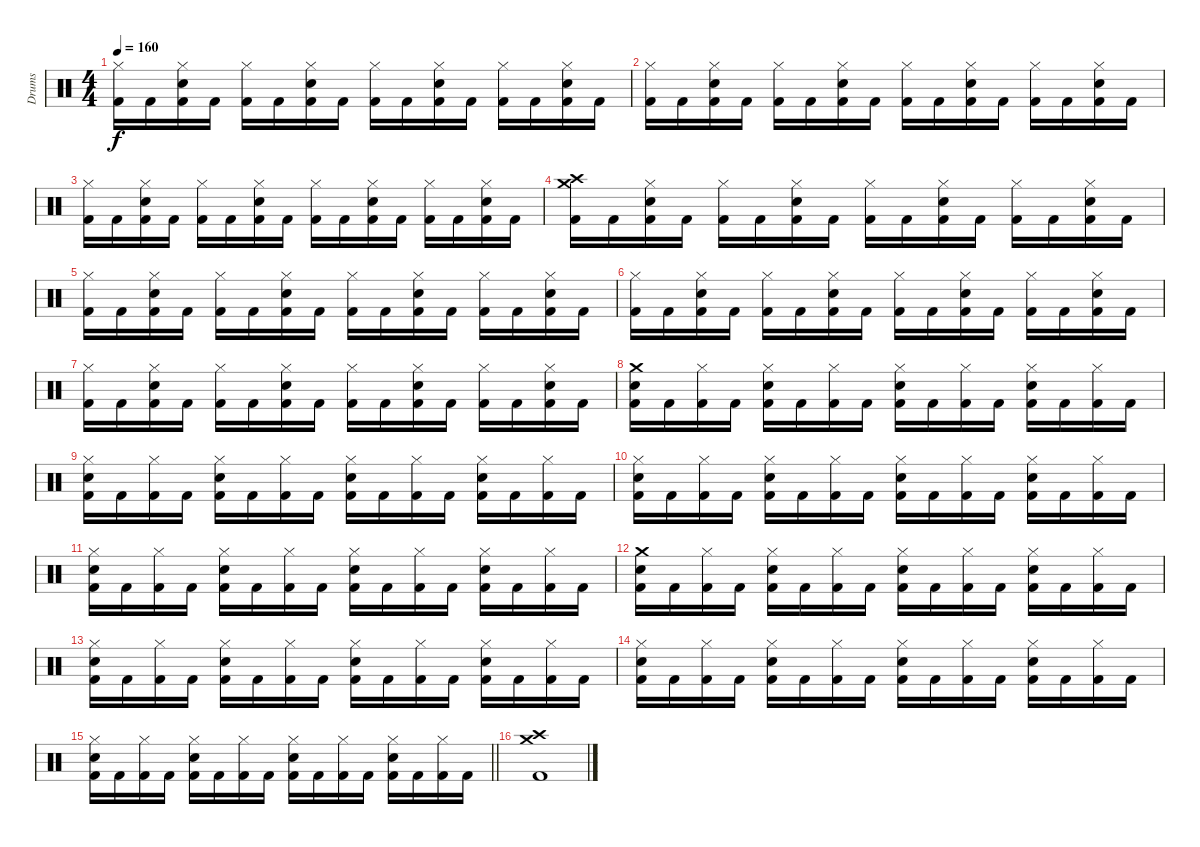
\track ("Drums" "Drums") {instrument percussion}
\staff {score}
\articulation defaults
\ts (4 4)
\tempo 160
\clef neutral
\ks c
("Hi-Hat (closed)" "Kick (hit) 2").16{dy f} "Kick (hit) 2".16 ("Hi-Hat (closed)" "Electric Snare (hit)" "Kick (hit) 2").16 "Kick (hit) 2".16 ("Hi-Hat (closed)" "Kick (hit) 2").16 "Kick (hit) 2".16 ("Hi-Hat (closed)" "Electric Snare (hit)" "Kick (hit) 2").16 "Kick (hit) 2".16 ("Hi-Hat (closed)" "Kick (hit) 2").16 "Kick (hit) 2".16 ("Hi-Hat (closed)" "Electric Snare (hit)" "Kick (hit) 2").16 "Kick (hit) 2".16 ("Hi-Hat (closed)" "Kick (hit) 2").16 "Kick (hit) 2".16 ("Hi-Hat (closed)" "Electric Snare (hit)" "Kick (hit) 2").16 "Kick (hit) 2".16 |
("Hi-Hat (closed)" "Kick (hit) 2").16 "Kick (hit) 2".16 ("Hi-Hat (closed)" "Electric Snare (hit)" "Kick (hit) 2").16 "Kick (hit) 2".16 ("Hi-Hat (closed)" "Kick (hit) 2").16 "Kick (hit) 2".16 ("Hi-Hat (closed)" "Electric Snare (hit)" "Kick (hit) 2").16 "Kick (hit) 2".16 ("Hi-Hat (closed)" "Kick (hit) 2").16 "Kick (hit) 2".16 ("Hi-Hat (closed)" "Electric Snare (hit)" "Kick (hit) 2").16 "Kick (hit) 2".16 ("Hi-Hat (closed)" "Kick (hit) 2").16 "Kick (hit) 2".16 ("Hi-Hat (closed)" "Electric Snare (hit)" "Kick (hit) 2").16 "Kick (hit) 2".16 |
("Hi-Hat (closed)" "Kick (hit) 2").16 "Kick (hit) 2".16 ("Hi-Hat (closed)" "Electric Snare (hit)" "Kick (hit) 2").16 "Kick (hit) 2".16 ("Hi-Hat (closed)" "Kick (hit) 2").16 "Kick (hit) 2".16 ("Hi-Hat (closed)" "Electric Snare (hit)" "Kick (hit) 2").16 "Kick (hit) 2".16 ("Hi-Hat (closed)" "Kick (hit) 2").16 "Kick (hit) 2".16 ("Hi-Hat (closed)" "Electric Snare (hit)" "Kick (hit) 2").16 "Kick (hit) 2".16 ("Hi-Hat (closed)" "Kick (hit) 2").16 "Kick (hit) 2".16 ("Hi-Hat (closed)" "Electric Snare (hit)" "Kick (hit) 2").16 "Kick (hit) 2".16 |
("Crash medium (hit)" "Crash high (hit)" "Kick (hit) 2").16 "Kick (hit) 2".16 ("Hi-Hat (closed)" "Electric Snare (hit)" "Kick (hit) 2").16 "Kick (hit) 2".16 ("Hi-Hat (closed)" "Kick (hit) 2").16 "Kick (hit) 2".16 ("Hi-Hat (closed)" "Electric Snare (hit)" "Kick (hit) 2").16 "Kick (hit) 2".16 ("Hi-Hat (closed)" "Kick (hit) 2").16 "Kick (hit) 2".16 ("Hi-Hat (closed)" "Electric Snare (hit)" "Kick (hit) 2").16 "Kick (hit) 2".16 ("Hi-Hat (closed)" "Kick (hit) 2").16 "Kick (hit) 2".16 ("Hi-Hat (closed)" "Electric Snare (hit)" "Kick (hit) 2").16 "Kick (hit) 2".16 |
("Hi-Hat (closed)" "Kick (hit) 2").16 "Kick (hit) 2".16 ("Hi-Hat (closed)" "Electric Snare (hit)" "Kick (hit) 2").16 "Kick (hit) 2".16 ("Hi-Hat (closed)" "Kick (hit) 2").16 "Kick (hit) 2".16 ("Hi-Hat (closed)" "Electric Snare (hit)" "Kick (hit) 2").16 "Kick (hit) 2".16 ("Hi-Hat (closed)" "Kick (hit) 2").16 "Kick (hit) 2".16 ("Hi-Hat (closed)" "Electric Snare (hit)" "Kick (hit) 2").16 "Kick (hit) 2".16 ("Hi-Hat (closed)" "Kick (hit) 2").16 "Kick (hit) 2".16 ("Hi-Hat (closed)" "Electric Snare (hit)" "Kick (hit) 2").16 "Kick (hit) 2".16 |
("Hi-Hat (closed)" "Kick (hit) 2").16 "Kick (hit) 2".16 ("Hi-Hat (closed)" "Electric Snare (hit)" "Kick (hit) 2").16 "Kick (hit) 2".16 ("Hi-Hat (closed)" "Kick (hit) 2").16 "Kick (hit) 2".16 ("Hi-Hat (closed)" "Electric Snare (hit)" "Kick (hit) 2").16 "Kick (hit) 2".16 ("Hi-Hat (closed)" "Kick (hit) 2").16 "Kick (hit) 2".16 ("Hi-Hat (closed)" "Electric Snare (hit)" "Kick (hit) 2").16 "Kick (hit) 2".16 ("Hi-Hat (closed)" "Kick (hit) 2").16 "Kick (hit) 2".16 ("Hi-Hat (closed)" "Electric Snare (hit)" "Kick (hit) 2").16 "Kick (hit) 2".16 |
("Hi-Hat (closed)" "Kick (hit) 2").16 "Kick (hit) 2".16 ("Hi-Hat (closed)" "Electric Snare (hit)" "Kick (hit) 2").16 "Kick (hit) 2".16 ("Hi-Hat (closed)" "Kick (hit) 2").16 "Kick (hit) 2".16 ("Hi-Hat (closed)" "Electric Snare (hit)" "Kick (hit) 2").16 "Kick (hit) 2".16 ("Hi-Hat (closed)" "Kick (hit) 2").16 "Kick (hit) 2".16 ("Hi-Hat (closed)" "Electric Snare (hit)" "Kick (hit) 2").16 "Kick (hit) 2".16 ("Hi-Hat (closed)" "Kick (hit) 2").16 "Kick (hit) 2".16 ("Hi-Hat (closed)" "Electric Snare (hit)" "Kick (hit) 2").16 "Kick (hit) 2".16 |
("Crash medium (hit)" "Electric Snare (hit)" "Kick (hit) 2").16 "Kick (hit) 2".16 ("Hi-Hat (closed)" "Kick (hit) 2").16 "Kick (hit) 2".16 ("Hi-Hat (closed)" "Electric Snare (hit)" "Kick (hit) 2").16 "Kick (hit) 2".16 ("Hi-Hat (closed)" "Kick (hit) 2").16 "Kick (hit) 2".16 ("Hi-Hat (closed)" "Electric Snare (hit)" "Kick (hit) 2").16 "Kick (hit) 2".16 ("Hi-Hat (closed)" "Kick (hit) 2").16 "Kick (hit) 2".16 ("Hi-Hat (closed)" "Electric Snare (hit)" "Kick (hit) 2").16 "Kick (hit) 2".16 ("Hi-Hat (closed)" "Kick (hit) 2").16 "Kick (hit) 2".16 |
("Hi-Hat (closed)" "Electric Snare (hit)" "Kick (hit) 2").16 "Kick (hit) 2".16 ("Hi-Hat (closed)" "Kick (hit) 2").16 "Kick (hit) 2".16 ("Hi-Hat (closed)" "Electric Snare (hit)" "Kick (hit) 2").16 "Kick (hit) 2".16 ("Hi-Hat (closed)" "Kick (hit) 2").16 "Kick (hit) 2".16 ("Hi-Hat (closed)" "Electric Snare (hit)" "Kick (hit) 2").16 "Kick (hit) 2".16 ("Hi-Hat (closed)" "Kick (hit) 2").16 "Kick (hit) 2".16 ("Hi-Hat (closed)" "Electric Snare (hit)" "Kick (hit) 2").16 "Kick (hit) 2".16 ("Hi-Hat (closed)" "Kick (hit) 2").16 "Kick (hit) 2".16 |
("Hi-Hat (closed)" "Electric Snare (hit)" "Kick (hit) 2").16 "Kick (hit) 2".16 ("Hi-Hat (closed)" "Kick (hit) 2").16 "Kick (hit) 2".16 ("Hi-Hat (closed)" "Electric Snare (hit)" "Kick (hit) 2").16 "Kick (hit) 2".16 ("Hi-Hat (closed)" "Kick (hit) 2").16 "Kick (hit) 2".16 ("Hi-Hat (closed)" "Electric Snare (hit)" "Kick (hit) 2").16 "Kick (hit) 2".16 ("Hi-Hat (closed)" "Kick (hit) 2").16 "Kick (hit) 2".16 ("Hi-Hat (closed)" "Electric Snare (hit)" "Kick (hit) 2").16 "Kick (hit) 2".16 ("Hi-Hat (closed)" "Kick (hit) 2").16 "Kick (hit) 2".16 |
("Hi-Hat (closed)" "Electric Snare (hit)" "Kick (hit) 2").16 "Kick (hit) 2".16 ("Hi-Hat (closed)" "Kick (hit) 2").16 "Kick (hit) 2".16 ("Hi-Hat (closed)" "Electric Snare (hit)" "Kick (hit) 2").16 "Kick (hit) 2".16 ("Hi-Hat (closed)" "Kick (hit) 2").16 "Kick (hit) 2".16 ("Hi-Hat (closed)" "Electric Snare (hit)" "Kick (hit) 2").16 "Kick (hit) 2".16 ("Hi-Hat (closed)" "Kick (hit) 2").16 "Kick (hit) 2".16 ("Hi-Hat (closed)" "Electric Snare (hit)" "Kick (hit) 2").16 "Kick (hit) 2".16 ("Hi-Hat (closed)" "Kick (hit) 2").16 "Kick (hit) 2".16 |
("Crash medium (hit)" "Electric Snare (hit)" "Kick (hit) 2").16 "Kick (hit) 2".16 ("Hi-Hat (closed)" "Kick (hit) 2").16 "Kick (hit) 2".16 ("Hi-Hat (closed)" "Electric Snare (hit)" "Kick (hit) 2").16 "Kick (hit) 2".16 ("Hi-Hat (closed)" "Kick (hit) 2").16 "Kick (hit) 2".16 ("Hi-Hat (closed)" "Electric Snare (hit)" "Kick (hit) 2").16 "Kick (hit) 2".16 ("Hi-Hat (closed)" "Kick (hit) 2").16 "Kick (hit) 2".16 ("Hi-Hat (closed)" "Electric Snare (hit)" "Kick (hit) 2").16 "Kick (hit) 2".16 ("Hi-Hat (closed)" "Kick (hit) 2").16 "Kick (hit) 2".16 |
("Hi-Hat (closed)" "Electric Snare (hit)" "Kick (hit) 2").16 "Kick (hit) 2".16 ("Hi-Hat (closed)" "Kick (hit) 2").16 "Kick (hit) 2".16 ("Hi-Hat (closed)" "Electric Snare (hit)" "Kick (hit) 2").16 "Kick (hit) 2".16 ("Hi-Hat (closed)" "Kick (hit) 2").16 "Kick (hit) 2".16 ("Hi-Hat (closed)" "Electric Snare (hit)" "Kick (hit) 2").16 "Kick (hit) 2".16 ("Hi-Hat (closed)" "Kick (hit) 2").16 "Kick (hit) 2".16 ("Hi-Hat (closed)" "Electric Snare (hit)" "Kick (hit) 2").16 "Kick (hit) 2".16 ("Hi-Hat (closed)" "Kick (hit) 2").16 "Kick (hit) 2".16 |
("Hi-Hat (closed)" "Electric Snare (hit)" "Kick (hit) 2").16 "Kick (hit) 2".16 ("Hi-Hat (closed)" "Kick (hit) 2").16 "Kick (hit) 2".16 ("Hi-Hat (closed)" "Electric Snare (hit)" "Kick (hit) 2").16 "Kick (hit) 2".16 ("Hi-Hat (closed)" "Kick (hit) 2").16 "Kick (hit) 2".16 ("Hi-Hat (closed)" "Electric Snare (hit)" "Kick (hit) 2").16 "Kick (hit) 2".16 ("Hi-Hat (closed)" "Kick (hit) 2").16 "Kick (hit) 2".16 ("Hi-Hat (closed)" "Electric Snare (hit)" "Kick (hit) 2").16 "Kick (hit) 2".16 ("Hi-Hat (closed)" "Kick (hit) 2").16 "Kick (hit) 2".16 |
\barLineRight lightlight
("Hi-Hat (closed)" "Electric Snare (hit)" "Kick (hit) 2").16 "Kick (hit) 2".16 ("Hi-Hat (closed)" "Kick (hit) 2").16 "Kick (hit) 2".16 ("Hi-Hat (closed)" "Electric Snare (hit)" "Kick (hit) 2").16 "Kick (hit) 2".16 ("Hi-Hat (closed)" "Kick (hit) 2").16 "Kick (hit) 2".16 ("Hi-Hat (closed)" "Electric Snare (hit)" "Kick (hit) 2").16 "Kick (hit) 2".16 ("Hi-Hat (closed)" "Kick (hit) 2").16 "Kick (hit) 2".16 ("Hi-Hat (closed)" "Electric Snare (hit)" "Kick (hit) 2").16 "Kick (hit) 2".16 ("Hi-Hat (closed)" "Kick (hit) 2").16 "Kick (hit) 2".16 |
\section ("" "")
("Crash medium (hit)" "Crash high (hit)" "Kick (hit) 2").1
